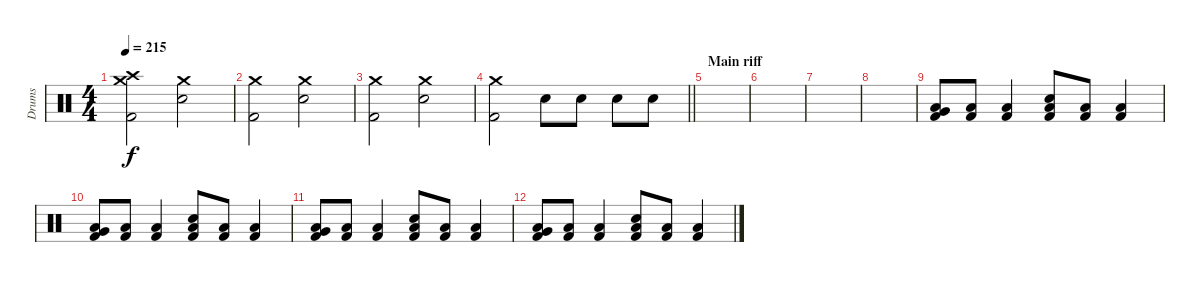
\track ("Drums" "Drums") {instrument percussion}
\staff {score}
\articulation defaults
\ts (4 4)
\tempo 215
\clef neutral
\ks c
("Crash medium (hit)" "Crash high (hit)" "Kick (hit) 2").2{dy f} ("Crash medium (hit)" "Electric Snare (hit)").2 |
("Crash medium (hit)" "Kick (hit) 2").2 ("Crash medium (hit)" "Electric Snare (hit)").2 |
("Crash medium (hit)" "Kick (hit) 2").2 ("Crash medium (hit)" "Electric Snare (hit)").2 |
\barLineRight lightlight
("Crash medium (hit)" "Kick (hit) 2").2 "Electric Snare (hit)".8 "Electric Snare (hit)".8 "Electric Snare (hit)".8 "Electric Snare (hit)".8 |
\section ("" "Main riff")
|
|
|
|
("Very Low Tom (hit)" "Low Floor Tom (hit)" "Kick (hit) 2").8 ("Low Floor Tom (hit)" "Kick (hit) 2").8 ("Low Floor Tom (hit)" "Kick (hit) 2").4 ("Electric Snare (hit)" "Low Floor Tom (hit)" "Kick (hit) 2").8 ("Low Floor Tom (hit)" "Kick (hit) 2").8 ("Low Floor Tom (hit)" "Kick (hit) 2").4 |
("Very Low Tom (hit)" "Low Floor Tom (hit)" "Kick (hit) 2").8 ("Low Floor Tom (hit)" "Kick (hit) 2").8 ("Low Floor Tom (hit)" "Kick (hit) 2").4 ("Electric Snare (hit)" "Low Floor Tom (hit)" "Kick (hit) 2").8 ("Low Floor Tom (hit)" "Kick (hit) 2").8 ("Low Floor Tom (hit)" "Kick (hit) 2").4 |
("Very Low Tom (hit)" "Low Floor Tom (hit)" "Kick (hit) 2").8 ("Low Floor Tom (hit)" "Kick (hit) 2").8 ("Low Floor Tom (hit)" "Kick (hit) 2").4 ("Electric Snare (hit)" "Low Floor Tom (hit)" "Kick (hit) 2").8 ("Low Floor Tom (hit)" "Kick (hit) 2").8 ("Low Floor Tom (hit)" "Kick (hit) 2").4 |
("Very Low Tom (hit)" "Low Floor Tom (hit)" "Kick (hit) 2").8 ("Low Floor Tom (hit)" "Kick (hit) 2").8 ("Low Floor Tom (hit)" "Kick (hit) 2").4 ("Electric Snare (hit)" "Low Floor Tom (hit)" "Kick (hit) 2").8 ("Low Floor Tom (hit)" "Kick (hit) 2").8 ("Low Floor Tom (hit)" "Kick (hit) 2").4
